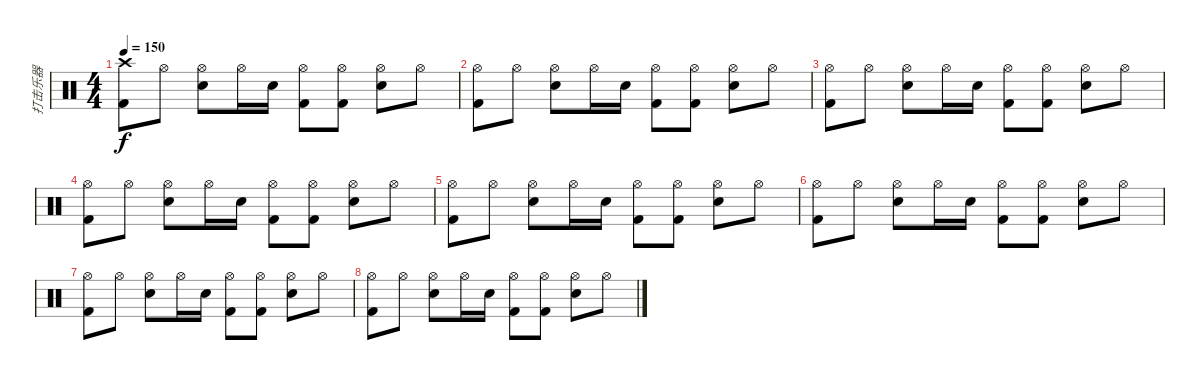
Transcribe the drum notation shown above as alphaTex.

\track ("打击乐器" "打击乐器") {instrument percussion}
\staff {score}
\articulation defaults
\ts (4 4)
\tempo 150
\clef neutral
\ks c
("Crash high (hit)" "Kick (hit) 2").8{dy f} "Hi-Hat (open)".8 ("Hi-Hat (open)" "Snare (hit) 2").8 "Hi-Hat (open)".16 "Snare (hit) 2".16 ("Hi-Hat (open)" "Kick (hit) 2").8 ("Hi-Hat (open)" "Kick (hit) 2").8 ("Hi-Hat (open)" "Snare (hit) 2").8 "Hi-Hat (open)".8 |
("Hi-Hat (open)" "Kick (hit) 2").8 "Hi-Hat (open)".8 ("Hi-Hat (open)" "Snare (hit) 2").8 "Hi-Hat (open)".16 "Snare (hit) 2".16 ("Hi-Hat (open)" "Kick (hit) 2").8 ("Hi-Hat (open)" "Kick (hit) 2").8 ("Hi-Hat (open)" "Snare (hit) 2").8 "Hi-Hat (open)".8 |
("Hi-Hat (open)" "Kick (hit) 2").8 "Hi-Hat (open)".8 ("Hi-Hat (open)" "Snare (hit) 2").8 "Hi-Hat (open)".16 "Snare (hit) 2".16 ("Hi-Hat (open)" "Kick (hit) 2").8 ("Hi-Hat (open)" "Kick (hit) 2").8 ("Hi-Hat (open)" "Snare (hit) 2").8 "Hi-Hat (open)".8 |
("Hi-Hat (open)" "Kick (hit) 2").8 "Hi-Hat (open)".8 ("Hi-Hat (open)" "Snare (hit) 2").8 "Hi-Hat (open)".16 "Snare (hit) 2".16 ("Hi-Hat (open)" "Kick (hit) 2").8 ("Hi-Hat (open)" "Kick (hit) 2").8 ("Hi-Hat (open)" "Snare (hit) 2").8 "Hi-Hat (open)".8 |
("Hi-Hat (open)" "Kick (hit) 2").8 "Hi-Hat (open)".8 ("Hi-Hat (open)" "Snare (hit) 2").8 "Hi-Hat (open)".16 "Snare (hit) 2".16 ("Hi-Hat (open)" "Kick (hit) 2").8 ("Hi-Hat (open)" "Kick (hit) 2").8 ("Hi-Hat (open)" "Snare (hit) 2").8 "Hi-Hat (open)".8 |
("Hi-Hat (open)" "Kick (hit) 2").8 "Hi-Hat (open)".8 ("Hi-Hat (open)" "Snare (hit) 2").8 "Hi-Hat (open)".16 "Snare (hit) 2".16 ("Hi-Hat (open)" "Kick (hit) 2").8 ("Hi-Hat (open)" "Kick (hit) 2").8 ("Hi-Hat (open)" "Snare (hit) 2").8 "Hi-Hat (open)".8 |
("Hi-Hat (open)" "Kick (hit) 2").8 "Hi-Hat (open)".8 ("Hi-Hat (open)" "Snare (hit) 2").8 "Hi-Hat (open)".16 "Snare (hit) 2".16 ("Hi-Hat (open)" "Kick (hit) 2").8 ("Hi-Hat (open)" "Kick (hit) 2").8 ("Hi-Hat (open)" "Snare (hit) 2").8 "Hi-Hat (open)".8 |
("Hi-Hat (open)" "Kick (hit) 2").8 "Hi-Hat (open)".8 ("Hi-Hat (open)" "Snare (hit) 2").8 "Hi-Hat (open)".16 "Snare (hit) 2".16 ("Hi-Hat (open)" "Kick (hit) 2").8 ("Hi-Hat (open)" "Kick (hit) 2").8 ("Hi-Hat (open)" "Snare (hit) 2").8 "Hi-Hat (open)".8
